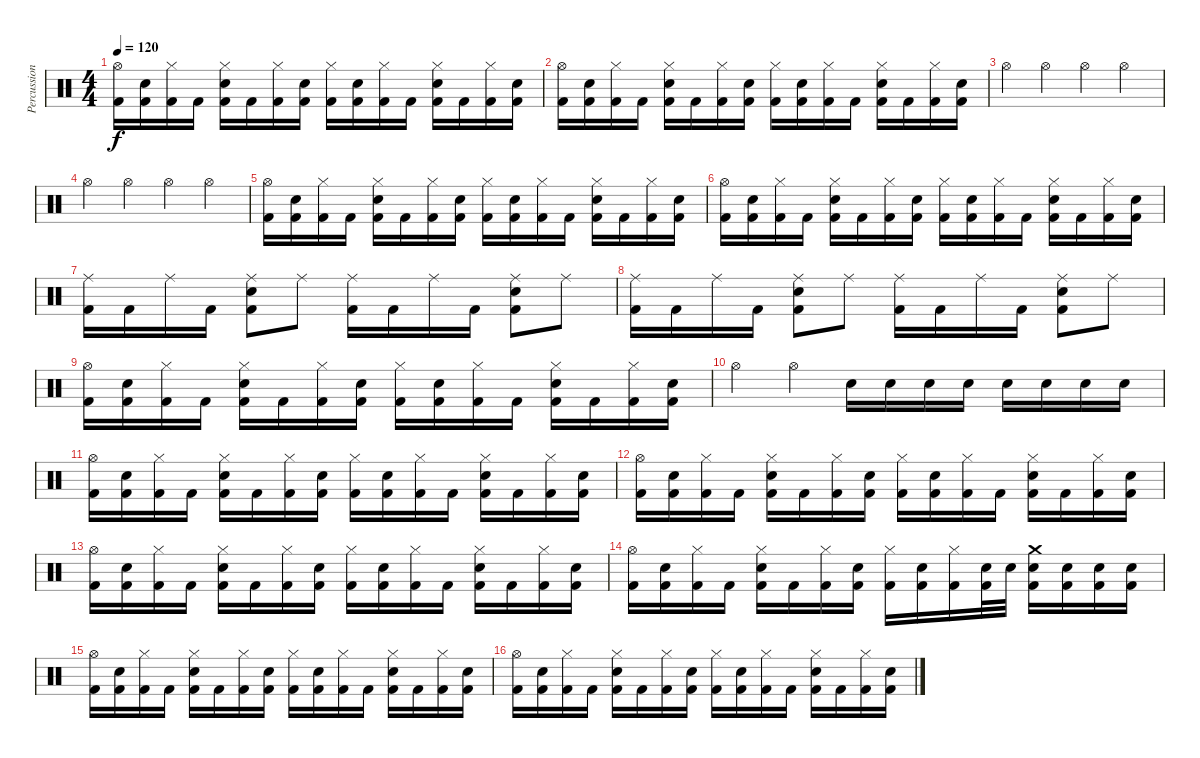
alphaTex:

\track ("Percussions" "Percussion") {instrument percussion}
\staff {score}
\articulation defaults
\ts (4 4)
\tempo 120
\clef neutral
\ks c
("Hi-Hat (open)" "Kick (hit) 2").16{dy f} ("Electric Snare (hit)" "Kick (hit) 2").16 ("Hi-Hat (closed)" "Kick (hit) 2").16 "Kick (hit) 2".16 ("Electric Snare (hit)" "Hi-Hat (closed)" "Kick (hit) 2").16 "Kick (hit) 2".16 ("Hi-Hat (closed)" "Kick (hit) 2").16 ("Electric Snare (hit)" "Kick (hit) 2").16 ("Hi-Hat (closed)" "Kick (hit) 2").16 ("Electric Snare (hit)" "Kick (hit) 2").16 ("Hi-Hat (closed)" "Kick (hit) 2").16 "Kick (hit) 2".16 ("Electric Snare (hit)" "Hi-Hat (closed)" "Kick (hit) 2").16 "Kick (hit) 2".16 ("Hi-Hat (closed)" "Kick (hit) 2").16 ("Electric Snare (hit)" "Kick (hit) 2").16 |
("Hi-Hat (open)" "Kick (hit) 2").16 ("Electric Snare (hit)" "Kick (hit) 2").16 ("Hi-Hat (closed)" "Kick (hit) 2").16 "Kick (hit) 2".16 ("Electric Snare (hit)" "Hi-Hat (closed)" "Kick (hit) 2").16 "Kick (hit) 2".16 ("Hi-Hat (closed)" "Kick (hit) 2").16 ("Electric Snare (hit)" "Kick (hit) 2").16 ("Hi-Hat (closed)" "Kick (hit) 2").16 ("Electric Snare (hit)" "Kick (hit) 2").16 ("Hi-Hat (closed)" "Kick (hit) 2").16 "Kick (hit) 2".16 ("Electric Snare (hit)" "Hi-Hat (closed)" "Kick (hit) 2").16 "Kick (hit) 2".16 ("Hi-Hat (closed)" "Kick (hit) 2").16 ("Electric Snare (hit)" "Kick (hit) 2").16 |
"Hi-Hat (open)".4 "Hi-Hat (open)".4 "Hi-Hat (open)".4 "Hi-Hat (open)".4 |
"Hi-Hat (open)".4 "Hi-Hat (open)".4 "Hi-Hat (open)".4 "Hi-Hat (open)".4 |
("Hi-Hat (open)" "Kick (hit) 2").16 ("Electric Snare (hit)" "Kick (hit) 2").16 ("Hi-Hat (closed)" "Kick (hit) 2").16 "Kick (hit) 2".16 ("Electric Snare (hit)" "Hi-Hat (closed)" "Kick (hit) 2").16 "Kick (hit) 2".16 ("Hi-Hat (closed)" "Kick (hit) 2").16 ("Electric Snare (hit)" "Kick (hit) 2").16 ("Hi-Hat (closed)" "Kick (hit) 2").16 ("Electric Snare (hit)" "Kick (hit) 2").16 ("Hi-Hat (closed)" "Kick (hit) 2").16 "Kick (hit) 2".16 ("Electric Snare (hit)" "Hi-Hat (closed)" "Kick (hit) 2").16 "Kick (hit) 2".16 ("Hi-Hat (closed)" "Kick (hit) 2").16 ("Electric Snare (hit)" "Kick (hit) 2").16 |
("Hi-Hat (open)" "Kick (hit) 2").16 ("Electric Snare (hit)" "Kick (hit) 2").16 ("Hi-Hat (closed)" "Kick (hit) 2").16 "Kick (hit) 2".16 ("Electric Snare (hit)" "Hi-Hat (closed)" "Kick (hit) 2").16 "Kick (hit) 2".16 ("Hi-Hat (closed)" "Kick (hit) 2").16 ("Electric Snare (hit)" "Kick (hit) 2").16 ("Hi-Hat (closed)" "Kick (hit) 2").16 ("Electric Snare (hit)" "Kick (hit) 2").16 ("Hi-Hat (closed)" "Kick (hit) 2").16 "Kick (hit) 2".16 ("Electric Snare (hit)" "Hi-Hat (closed)" "Kick (hit) 2").16 "Kick (hit) 2".16 ("Hi-Hat (closed)" "Kick (hit) 2").16 ("Electric Snare (hit)" "Kick (hit) 2").16 |
("Ride (middle)" "Kick (hit) 2").16 "Kick (hit) 2".16 "Ride (middle)".16 "Kick (hit) 2".16 ("Electric Snare (hit)" "Ride (middle)" "Kick (hit) 2").8 "Ride (middle)".8 ("Ride (middle)" "Kick (hit) 2").16 "Kick (hit) 2".16 "Ride (middle)".16 "Kick (hit) 2".16 ("Electric Snare (hit)" "Ride (middle)" "Kick (hit) 2").8 "Ride (middle)".8 |
("Ride (middle)" "Kick (hit) 2").16 "Kick (hit) 2".16 "Ride (middle)".16 "Kick (hit) 2".16 ("Electric Snare (hit)" "Ride (middle)" "Kick (hit) 2").8 "Ride (middle)".8 ("Ride (middle)" "Kick (hit) 2").16 "Kick (hit) 2".16 "Ride (middle)".16 "Kick (hit) 2".16 ("Electric Snare (hit)" "Ride (middle)" "Kick (hit) 2").8 "Ride (middle)".8 |
("Hi-Hat (open)" "Kick (hit) 2").16 ("Electric Snare (hit)" "Kick (hit) 2").16 ("Hi-Hat (closed)" "Kick (hit) 2").16 "Kick (hit) 2".16 ("Electric Snare (hit)" "Hi-Hat (closed)" "Kick (hit) 2").16 "Kick (hit) 2".16 ("Hi-Hat (closed)" "Kick (hit) 2").16 ("Electric Snare (hit)" "Kick (hit) 2").16 ("Hi-Hat (closed)" "Kick (hit) 2").16 ("Electric Snare (hit)" "Kick (hit) 2").16 ("Hi-Hat (closed)" "Kick (hit) 2").16 "Kick (hit) 2".16 ("Electric Snare (hit)" "Hi-Hat (closed)" "Kick (hit) 2").16 "Kick (hit) 2".16 ("Hi-Hat (closed)" "Kick (hit) 2").16 ("Electric Snare (hit)" "Kick (hit) 2").16 |
"Hi-Hat (open)".4 "Hi-Hat (open)".4 "Electric Snare (hit)".16 "Electric Snare (hit)".16 "Electric Snare (hit)".16 "Electric Snare (hit)".16 "Electric Snare (hit)".16 "Electric Snare (hit)".16 "Electric Snare (hit)".16 "Electric Snare (hit)".16 |
("Hi-Hat (open)" "Kick (hit) 2").16 ("Electric Snare (hit)" "Kick (hit) 2").16 ("Hi-Hat (closed)" "Kick (hit) 2").16 "Kick (hit) 2".16 ("Electric Snare (hit)" "Hi-Hat (closed)" "Kick (hit) 2").16 "Kick (hit) 2".16 ("Hi-Hat (closed)" "Kick (hit) 2").16 ("Electric Snare (hit)" "Kick (hit) 2").16 ("Hi-Hat (closed)" "Kick (hit) 2").16 ("Electric Snare (hit)" "Kick (hit) 2").16 ("Hi-Hat (closed)" "Kick (hit) 2").16 "Kick (hit) 2".16 ("Electric Snare (hit)" "Hi-Hat (closed)" "Kick (hit) 2").16 "Kick (hit) 2".16 ("Hi-Hat (closed)" "Kick (hit) 2").16 ("Electric Snare (hit)" "Kick (hit) 2").16 |
("Hi-Hat (open)" "Kick (hit) 2").16 ("Electric Snare (hit)" "Kick (hit) 2").16 ("Hi-Hat (closed)" "Kick (hit) 2").16 "Kick (hit) 2".16 ("Electric Snare (hit)" "Hi-Hat (closed)" "Kick (hit) 2").16 "Kick (hit) 2".16 ("Hi-Hat (closed)" "Kick (hit) 2").16 ("Electric Snare (hit)" "Kick (hit) 2").16 ("Hi-Hat (closed)" "Kick (hit) 2").16 ("Electric Snare (hit)" "Kick (hit) 2").16 ("Hi-Hat (closed)" "Kick (hit) 2").16 "Kick (hit) 2".16 ("Electric Snare (hit)" "Hi-Hat (closed)" "Kick (hit) 2").16 "Kick (hit) 2".16 ("Hi-Hat (closed)" "Kick (hit) 2").16 ("Electric Snare (hit)" "Kick (hit) 2").16 |
("Hi-Hat (open)" "Kick (hit) 2").16 ("Electric Snare (hit)" "Kick (hit) 2").16 ("Hi-Hat (closed)" "Kick (hit) 2").16 "Kick (hit) 2".16 ("Electric Snare (hit)" "Hi-Hat (closed)" "Kick (hit) 2").16 "Kick (hit) 2".16 ("Hi-Hat (closed)" "Kick (hit) 2").16 ("Electric Snare (hit)" "Kick (hit) 2").16 ("Hi-Hat (closed)" "Kick (hit) 2").16 ("Electric Snare (hit)" "Kick (hit) 2").16 ("Hi-Hat (closed)" "Kick (hit) 2").16 "Kick (hit) 2".16 ("Electric Snare (hit)" "Hi-Hat (closed)" "Kick (hit) 2").16 "Kick (hit) 2".16 ("Hi-Hat (closed)" "Kick (hit) 2").16 ("Electric Snare (hit)" "Kick (hit) 2").16 |
("Hi-Hat (open)" "Kick (hit) 2").16 ("Electric Snare (hit)" "Kick (hit) 2").16 ("Hi-Hat (closed)" "Kick (hit) 2").16 "Kick (hit) 2".16 ("Electric Snare (hit)" "Hi-Hat (closed)" "Kick (hit) 2").16 "Kick (hit) 2".16 ("Hi-Hat (closed)" "Kick (hit) 2").16 ("Electric Snare (hit)" "Kick (hit) 2").16 ("Hi-Hat (closed)" "Kick (hit) 2").16 ("Electric Snare (hit)" "Kick (hit) 2").16 ("Hi-Hat (closed)" "Kick (hit) 2").16 ("Electric Snare (hit)" "Kick (hit) 2").32 "Electric Snare (hit)".32 ("Crash medium (hit)" "Electric Snare (hit)" "Kick (hit) 2").16 ("Electric Snare (hit)" "Kick (hit) 2").16 ("Electric Snare (hit)" "Kick (hit) 2").16 ("Electric Snare (hit)" "Kick (hit) 2").16 |
("Hi-Hat (open)" "Kick (hit) 2").16 ("Electric Snare (hit)" "Kick (hit) 2").16 ("Hi-Hat (closed)" "Kick (hit) 2").16 "Kick (hit) 2".16 ("Electric Snare (hit)" "Hi-Hat (closed)" "Kick (hit) 2").16 "Kick (hit) 2".16 ("Hi-Hat (closed)" "Kick (hit) 2").16 ("Electric Snare (hit)" "Kick (hit) 2").16 ("Hi-Hat (closed)" "Kick (hit) 2").16 ("Electric Snare (hit)" "Kick (hit) 2").16 ("Hi-Hat (closed)" "Kick (hit) 2").16 "Kick (hit) 2".16 ("Electric Snare (hit)" "Hi-Hat (closed)" "Kick (hit) 2").16 "Kick (hit) 2".16 ("Hi-Hat (closed)" "Kick (hit) 2").16 ("Electric Snare (hit)" "Kick (hit) 2").16 |
("Hi-Hat (open)" "Kick (hit) 2").16 ("Electric Snare (hit)" "Kick (hit) 2").16 ("Hi-Hat (closed)" "Kick (hit) 2").16 "Kick (hit) 2".16 ("Electric Snare (hit)" "Hi-Hat (closed)" "Kick (hit) 2").16 "Kick (hit) 2".16 ("Hi-Hat (closed)" "Kick (hit) 2").16 ("Electric Snare (hit)" "Kick (hit) 2").16 ("Hi-Hat (closed)" "Kick (hit) 2").16 ("Electric Snare (hit)" "Kick (hit) 2").16 ("Hi-Hat (closed)" "Kick (hit) 2").16 "Kick (hit) 2".16 ("Electric Snare (hit)" "Hi-Hat (closed)" "Kick (hit) 2").16 "Kick (hit) 2".16 ("Hi-Hat (closed)" "Kick (hit) 2").16 ("Electric Snare (hit)" "Kick (hit) 2").16
